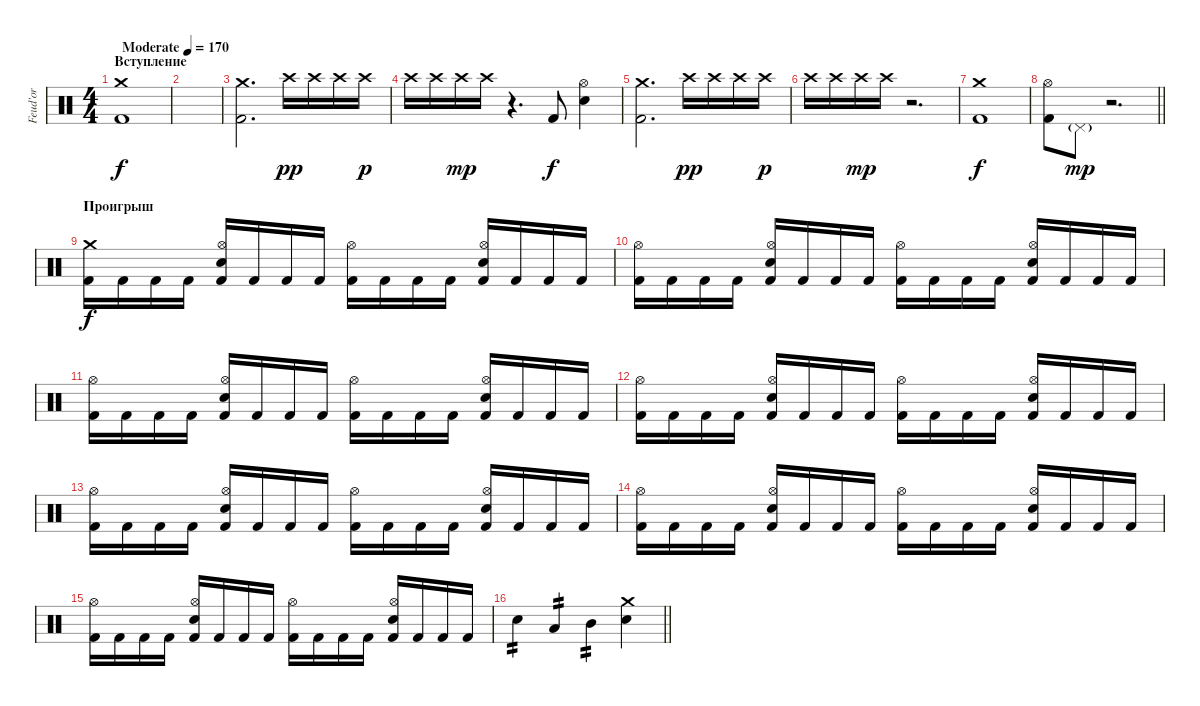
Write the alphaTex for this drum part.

\track ("Feud'or" "Feud'or") {instrument percussion}
\staff {score}
\articulation defaults
\ts (4 4)
\section ("" "Вступление")
\tempo (170 "Moderate")
\clef neutral
\ks c
("Crash medium (hit)" "Kick (hit) 2").1{dy f} |
|
("Crash medium (hit)" "Kick (hit) 2").2{d} "Crash high (hit)".16{dy pp} "Crash high (hit)".16 "Crash high (hit)".16 "Crash high (hit)".16{dy p} |
"Crash high (hit)".16 "Crash high (hit)".16 "Crash high (hit)".16{dy mp} "Crash high (hit)".16 r.4{d} "Kick (hit) 2".8{dy f} ("Hi-Hat (open)" "Electric Snare (hit)").4 |
("Crash medium (hit)" "Kick (hit) 2").2{d} "Crash high (hit)".16{dy pp} "Crash high (hit)".16 "Crash high (hit)".16 "Crash high (hit)".16{dy p} |
"Crash high (hit)".16 "Crash high (hit)".16 "Crash high (hit)".16{dy mp} "Crash high (hit)".16 r.2{d} |
("Crash medium (hit)" "Kick (hit) 2").1{dy f} |
\barLineRight lightlight
("Hi-Hat (open)" "Kick (hit) 2").8 "Pedal Hi-Hat (hit)"{g}.8{dy mp} r.2{d} |
\section ("" "Проигрыш")
("Crash medium (hit)" "Kick (hit) 2").16{dy f} "Kick (hit) 2".16 "Kick (hit) 2".16 "Kick (hit) 2".16 ("Hi-Hat (open)" "Electric Snare (hit)" "Kick (hit) 2").16 "Kick (hit) 2".16 "Kick (hit) 2".16 "Kick (hit) 2".16 ("Hi-Hat (open)" "Kick (hit) 2").16 "Kick (hit) 2".16 "Kick (hit) 2".16 "Kick (hit) 2".16 ("Hi-Hat (open)" "Electric Snare (hit)" "Kick (hit) 2").16 "Kick (hit) 2".16 "Kick (hit) 2".16 "Kick (hit) 2".16 |
("Hi-Hat (open)" "Kick (hit) 2").16 "Kick (hit) 2".16 "Kick (hit) 2".16 "Kick (hit) 2".16 ("Hi-Hat (open)" "Electric Snare (hit)" "Kick (hit) 2").16 "Kick (hit) 2".16 "Kick (hit) 2".16 "Kick (hit) 2".16 ("Hi-Hat (open)" "Kick (hit) 2").16 "Kick (hit) 2".16 "Kick (hit) 2".16 "Kick (hit) 2".16 ("Hi-Hat (open)" "Electric Snare (hit)" "Kick (hit) 2").16 "Kick (hit) 2".16 "Kick (hit) 2".16 "Kick (hit) 2".16 |
("Hi-Hat (open)" "Kick (hit) 2").16 "Kick (hit) 2".16 "Kick (hit) 2".16 "Kick (hit) 2".16 ("Hi-Hat (open)" "Electric Snare (hit)" "Kick (hit) 2").16 "Kick (hit) 2".16 "Kick (hit) 2".16 "Kick (hit) 2".16 ("Hi-Hat (open)" "Kick (hit) 2").16 "Kick (hit) 2".16 "Kick (hit) 2".16 "Kick (hit) 2".16 ("Hi-Hat (open)" "Electric Snare (hit)" "Kick (hit) 2").16 "Kick (hit) 2".16 "Kick (hit) 2".16 "Kick (hit) 2".16 |
("Hi-Hat (open)" "Kick (hit) 2").16 "Kick (hit) 2".16 "Kick (hit) 2".16 "Kick (hit) 2".16 ("Hi-Hat (open)" "Electric Snare (hit)" "Kick (hit) 2").16 "Kick (hit) 2".16 "Kick (hit) 2".16 "Kick (hit) 2".16 ("Hi-Hat (open)" "Kick (hit) 2").16 "Kick (hit) 2".16 "Kick (hit) 2".16 "Kick (hit) 2".16 ("Hi-Hat (open)" "Electric Snare (hit)" "Kick (hit) 2").16 "Kick (hit) 2".16 "Kick (hit) 2".16 "Kick (hit) 2".16 |
("Hi-Hat (open)" "Kick (hit) 2").16 "Kick (hit) 2".16 "Kick (hit) 2".16 "Kick (hit) 2".16 ("Hi-Hat (open)" "Electric Snare (hit)" "Kick (hit) 2").16 "Kick (hit) 2".16 "Kick (hit) 2".16 "Kick (hit) 2".16 ("Hi-Hat (open)" "Kick (hit) 2").16 "Kick (hit) 2".16 "Kick (hit) 2".16 "Kick (hit) 2".16 ("Hi-Hat (open)" "Electric Snare (hit)" "Kick (hit) 2").16 "Kick (hit) 2".16 "Kick (hit) 2".16 "Kick (hit) 2".16 |
("Hi-Hat (open)" "Kick (hit) 2").16 "Kick (hit) 2".16 "Kick (hit) 2".16 "Kick (hit) 2".16 ("Hi-Hat (open)" "Electric Snare (hit)" "Kick (hit) 2").16 "Kick (hit) 2".16 "Kick (hit) 2".16 "Kick (hit) 2".16 ("Hi-Hat (open)" "Kick (hit) 2").16 "Kick (hit) 2".16 "Kick (hit) 2".16 "Kick (hit) 2".16 ("Hi-Hat (open)" "Electric Snare (hit)" "Kick (hit) 2").16 "Kick (hit) 2".16 "Kick (hit) 2".16 "Kick (hit) 2".16 |
("Hi-Hat (open)" "Kick (hit) 2").16 "Kick (hit) 2".16 "Kick (hit) 2".16 "Kick (hit) 2".16 ("Hi-Hat (open)" "Electric Snare (hit)" "Kick (hit) 2").16 "Kick (hit) 2".16 "Kick (hit) 2".16 "Kick (hit) 2".16 ("Hi-Hat (open)" "Kick (hit) 2").16 "Kick (hit) 2".16 "Kick (hit) 2".16 "Kick (hit) 2".16 ("Hi-Hat (open)" "Electric Snare (hit)" "Kick (hit) 2").16 "Kick (hit) 2".16 "Kick (hit) 2".16 "Kick (hit) 2".16 |
\barLineRight lightlight "Electric Snare (hit)".4{tp 2} "Low Tom (hit)".4{tp 2} "Mid Tom (hit)".4{tp 2}
("Crash medium (hit)" "Electric Snare (hit)").4
